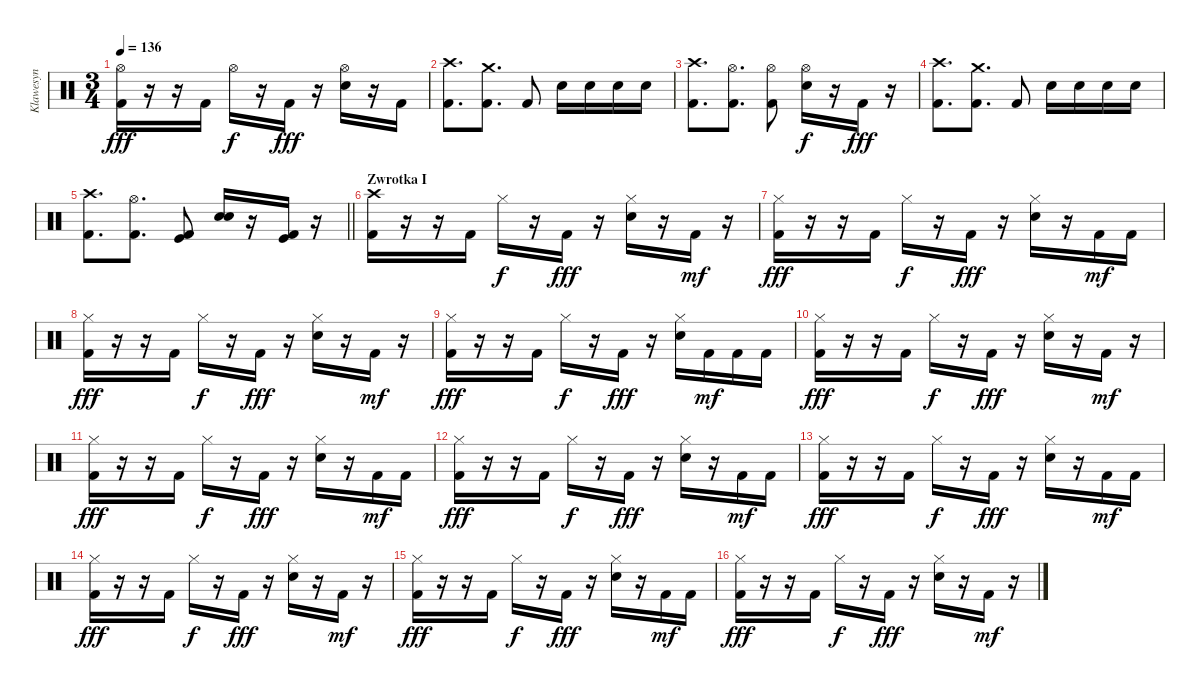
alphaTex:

\track ("Klawesyn" "Klawesyn") {instrument percussion}
\staff {score}
\articulation defaults
\ts (3 4)
\tempo 136
\clef neutral
\ks c
("Hi-Hat (open)" "Kick (hit) 2").16{dy fff} r.16 r.16 "Kick (hit) 2".16 "Hi-Hat (open)".16{dy f} r.16 "Kick (hit) 2".16{dy fff} r.16 ("Hi-Hat (open)" "Snare (hit) 2").16 r.16 "Kick (hit) 2".16 |
("Crash high (hit)" "Kick (hit) 2").8{d} ("Crash medium (hit)" "Kick (hit) 2").8{d} "Kick (hit) 2".8 "Snare (hit) 2".16 "Snare (hit) 2".16 "Snare (hit) 2".16 "Snare (hit) 2".16 |
("Crash high (hit)" "Kick (hit) 2").8{d} ("Hi-Hat (open)" "Kick (hit) 2").8{d} ("Hi-Hat (open)" "Kick (hit) 2").8 ("Hi-Hat (open)" "Snare (hit) 2").16{dy f} r.16 "Kick (hit) 2".16{dy fff} r.16 |
("Crash high (hit)" "Kick (hit) 2").8{d} ("Crash medium (hit)" "Kick (hit) 2").8{d} "Kick (hit) 2".8 "Snare (hit) 2".16 "Snare (hit) 2".16 "Snare (hit) 2".16 "Snare (hit) 2".16 |
\barLineRight lightlight
("Crash high (hit)" "Kick (hit) 2").8{d} ("Hi-Hat (open)" "Kick (hit) 2").8{d} ("Kick (hit)" "Kick (hit) 2").8 ("Snare (hit) 2" "Electric Snare (hit)").16 r.16 ("Kick (hit)" "Kick (hit) 2").16 r.16 |
\section ("" "Zwrotka I")
("Crash high (hit)" "Kick (hit) 2").16 r.16 r.16 "Kick (hit) 2".16 "Hi-Hat (closed)".16{dy f} r.16 "Kick (hit) 2".16{dy fff} r.16 ("Hi-Hat (closed)" "Snare (hit) 2").16 r.16 "Kick (hit) 2".16{dy mf} r.16 |
("Hi-Hat (closed)" "Kick (hit) 2").16{dy fff} r.16 r.16 "Kick (hit) 2".16 "Hi-Hat (closed)".16{dy f} r.16 "Kick (hit) 2".16{dy fff} r.16 ("Hi-Hat (closed)" "Snare (hit) 2").16 r.16 "Kick (hit) 2".16{dy mf} "Kick (hit) 2".16 |
("Hi-Hat (closed)" "Kick (hit) 2").16{dy fff} r.16 r.16 "Kick (hit) 2".16 "Hi-Hat (closed)".16{dy f} r.16 "Kick (hit) 2".16{dy fff} r.16 ("Hi-Hat (closed)" "Snare (hit) 2").16 r.16 "Kick (hit) 2".16{dy mf} r.16 |
("Hi-Hat (closed)" "Kick (hit) 2").16{dy fff} r.16 r.16 "Kick (hit) 2".16 "Hi-Hat (closed)".16{dy f} r.16 "Kick (hit) 2".16{dy fff} r.16 ("Hi-Hat (closed)" "Snare (hit) 2").16 "Kick (hit) 2".16{dy mf} "Kick (hit) 2".16 "Kick (hit) 2".16 |
("Hi-Hat (closed)" "Kick (hit) 2").16{dy fff} r.16 r.16 "Kick (hit) 2".16 "Hi-Hat (closed)".16{dy f} r.16 "Kick (hit) 2".16{dy fff} r.16 ("Hi-Hat (closed)" "Snare (hit) 2").16 r.16 "Kick (hit) 2".16{dy mf} r.16 |
("Hi-Hat (closed)" "Kick (hit) 2").16{dy fff} r.16 r.16 "Kick (hit) 2".16 "Hi-Hat (closed)".16{dy f} r.16 "Kick (hit) 2".16{dy fff} r.16 ("Hi-Hat (closed)" "Snare (hit) 2").16 r.16 "Kick (hit) 2".16{dy mf} "Kick (hit) 2".16 |
("Hi-Hat (closed)" "Kick (hit) 2").16{dy fff} r.16 r.16 "Kick (hit) 2".16 "Hi-Hat (closed)".16{dy f} r.16 "Kick (hit) 2".16{dy fff} r.16 ("Hi-Hat (closed)" "Snare (hit) 2").16 r.16 "Kick (hit) 2".16{dy mf} "Kick (hit) 2".16 |
("Hi-Hat (closed)" "Kick (hit) 2").16{dy fff} r.16 r.16 "Kick (hit) 2".16 "Hi-Hat (closed)".16{dy f} r.16 "Kick (hit) 2".16{dy fff} r.16 ("Hi-Hat (closed)" "Snare (hit) 2").16 r.16 "Kick (hit) 2".16{dy mf} "Kick (hit) 2".16 |
("Hi-Hat (closed)" "Kick (hit) 2").16{dy fff} r.16 r.16 "Kick (hit) 2".16 "Hi-Hat (closed)".16{dy f} r.16 "Kick (hit) 2".16{dy fff} r.16 ("Hi-Hat (closed)" "Snare (hit) 2").16 r.16 "Kick (hit) 2".16{dy mf} r.16 |
("Hi-Hat (closed)" "Kick (hit) 2").16{dy fff} r.16 r.16 "Kick (hit) 2".16 "Hi-Hat (closed)".16{dy f} r.16 "Kick (hit) 2".16{dy fff} r.16 ("Hi-Hat (closed)" "Snare (hit) 2").16 r.16 "Kick (hit) 2".16{dy mf} "Kick (hit) 2".16 |
("Hi-Hat (closed)" "Kick (hit) 2").16{dy fff} r.16 r.16 "Kick (hit) 2".16 "Hi-Hat (closed)".16{dy f} r.16 "Kick (hit) 2".16{dy fff} r.16 ("Hi-Hat (closed)" "Snare (hit) 2").16 r.16 "Kick (hit) 2".16{dy mf} r.16
